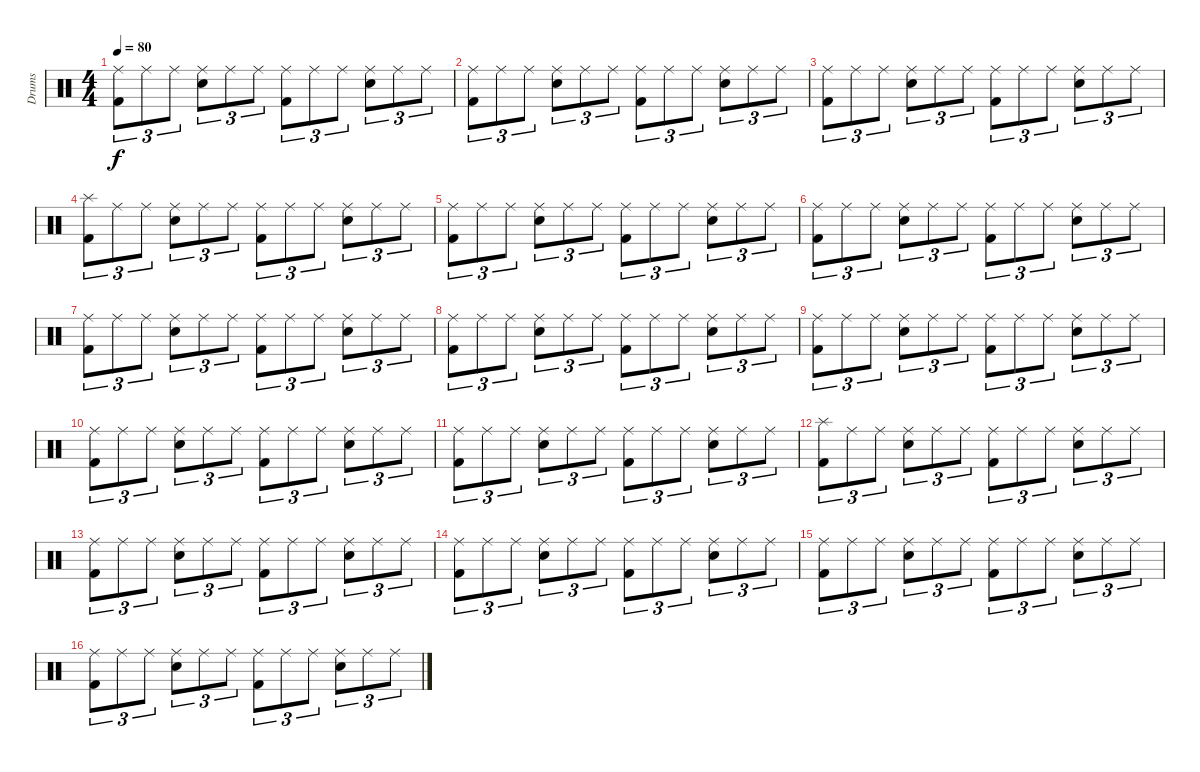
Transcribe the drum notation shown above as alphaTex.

\track ("Drums" "Drums") {instrument percussion}
\staff {score}
\articulation defaults
\ts (4 4)
\tempo 80
\clef neutral
\ks c
("Ride (middle)" "Kick (hit) 2").8{tu (3 2) dy f} "Ride (middle)".8{tu (3 2)} "Ride (middle)".8{tu (3 2)} ("Ride (middle)" "Electric Snare (hit)").8{tu (3 2)} "Ride (middle)".8{tu (3 2)} "Ride (middle)".8{tu (3 2)} ("Ride (middle)" "Kick (hit) 2").8{tu (3 2)} "Ride (middle)".8{tu (3 2)} "Ride (middle)".8{tu (3 2)} ("Ride (middle)" "Electric Snare (hit)").8{tu (3 2)} "Ride (middle)".8{tu (3 2)} "Ride (middle)".8{tu (3 2)} |
("Ride (middle)" "Kick (hit) 2").8{tu (3 2)} "Ride (middle)".8{tu (3 2)} "Ride (middle)".8{tu (3 2)} ("Ride (middle)" "Electric Snare (hit)").8{tu (3 2)} "Ride (middle)".8{tu (3 2)} "Ride (middle)".8{tu (3 2)} ("Ride (middle)" "Kick (hit) 2").8{tu (3 2)} "Ride (middle)".8{tu (3 2)} "Ride (middle)".8{tu (3 2)} ("Ride (middle)" "Electric Snare (hit)").8{tu (3 2)} "Ride (middle)".8{tu (3 2)} "Ride (middle)".8{tu (3 2)} |
("Ride (middle)" "Kick (hit) 2").8{tu (3 2)} "Ride (middle)".8{tu (3 2)} "Ride (middle)".8{tu (3 2)} ("Ride (middle)" "Electric Snare (hit)").8{tu (3 2)} "Ride (middle)".8{tu (3 2)} "Ride (middle)".8{tu (3 2)} ("Ride (middle)" "Kick (hit) 2").8{tu (3 2)} "Ride (middle)".8{tu (3 2)} "Ride (middle)".8{tu (3 2)} ("Ride (middle)" "Electric Snare (hit)").8{tu (3 2)} "Ride (middle)".8{tu (3 2)} "Ride (middle)".8{tu (3 2)} |
("Splash (hit)" "Kick (hit) 2").8{tu (3 2)} "Ride (middle)".8{tu (3 2)} "Ride (middle)".8{tu (3 2)} ("Ride (middle)" "Electric Snare (hit)").8{tu (3 2)} "Ride (middle)".8{tu (3 2)} "Ride (middle)".8{tu (3 2)} ("Ride (middle)" "Kick (hit) 2").8{tu (3 2)} "Ride (middle)".8{tu (3 2)} "Ride (middle)".8{tu (3 2)} ("Ride (middle)" "Electric Snare (hit)").8{tu (3 2)} "Ride (middle)".8{tu (3 2)} "Ride (middle)".8{tu (3 2)} |
("Ride (middle)" "Kick (hit) 2").8{tu (3 2)} "Ride (middle)".8{tu (3 2)} "Ride (middle)".8{tu (3 2)} ("Ride (middle)" "Electric Snare (hit)").8{tu (3 2)} "Ride (middle)".8{tu (3 2)} "Ride (middle)".8{tu (3 2)} ("Ride (middle)" "Kick (hit) 2").8{tu (3 2)} "Ride (middle)".8{tu (3 2)} "Ride (middle)".8{tu (3 2)} ("Ride (middle)" "Electric Snare (hit)").8{tu (3 2)} "Ride (middle)".8{tu (3 2)} "Ride (middle)".8{tu (3 2)} |
("Ride (middle)" "Kick (hit) 2").8{tu (3 2)} "Ride (middle)".8{tu (3 2)} "Ride (middle)".8{tu (3 2)} ("Ride (middle)" "Electric Snare (hit)").8{tu (3 2)} "Ride (middle)".8{tu (3 2)} "Ride (middle)".8{tu (3 2)} ("Ride (middle)" "Kick (hit) 2").8{tu (3 2)} "Ride (middle)".8{tu (3 2)} "Ride (middle)".8{tu (3 2)} ("Ride (middle)" "Electric Snare (hit)").8{tu (3 2)} "Ride (middle)".8{tu (3 2)} "Ride (middle)".8{tu (3 2)} |
("Ride (middle)" "Kick (hit) 2").8{tu (3 2)} "Ride (middle)".8{tu (3 2)} "Ride (middle)".8{tu (3 2)} ("Ride (middle)" "Electric Snare (hit)").8{tu (3 2)} "Ride (middle)".8{tu (3 2)} "Ride (middle)".8{tu (3 2)} ("Ride (middle)" "Kick (hit) 2").8{tu (3 2)} "Ride (middle)".8{tu (3 2)} "Ride (middle)".8{tu (3 2)} ("Ride (middle)" "Electric Snare (hit)").8{tu (3 2)} "Ride (middle)".8{tu (3 2)} "Ride (middle)".8{tu (3 2)} |
("Ride (middle)" "Kick (hit) 2").8{tu (3 2)} "Ride (middle)".8{tu (3 2)} "Ride (middle)".8{tu (3 2)} ("Ride (middle)" "Electric Snare (hit)").8{tu (3 2)} "Ride (middle)".8{tu (3 2)} "Ride (middle)".8{tu (3 2)} ("Ride (middle)" "Kick (hit) 2").8{tu (3 2)} "Ride (middle)".8{tu (3 2)} "Ride (middle)".8{tu (3 2)} ("Ride (middle)" "Electric Snare (hit)").8{tu (3 2)} "Ride (middle)".8{tu (3 2)} "Ride (middle)".8{tu (3 2)} |
("Ride (middle)" "Kick (hit) 2").8{tu (3 2)} "Ride (middle)".8{tu (3 2)} "Ride (middle)".8{tu (3 2)} ("Ride (middle)" "Electric Snare (hit)").8{tu (3 2)} "Ride (middle)".8{tu (3 2)} "Ride (middle)".8{tu (3 2)} ("Ride (middle)" "Kick (hit) 2").8{tu (3 2)} "Ride (middle)".8{tu (3 2)} "Ride (middle)".8{tu (3 2)} ("Ride (middle)" "Electric Snare (hit)").8{tu (3 2)} "Ride (middle)".8{tu (3 2)} "Ride (middle)".8{tu (3 2)} |
("Ride (middle)" "Kick (hit) 2").8{tu (3 2)} "Ride (middle)".8{tu (3 2)} "Ride (middle)".8{tu (3 2)} ("Ride (middle)" "Electric Snare (hit)").8{tu (3 2)} "Ride (middle)".8{tu (3 2)} "Ride (middle)".8{tu (3 2)} ("Ride (middle)" "Kick (hit) 2").8{tu (3 2)} "Ride (middle)".8{tu (3 2)} "Ride (middle)".8{tu (3 2)} ("Ride (middle)" "Electric Snare (hit)").8{tu (3 2)} "Ride (middle)".8{tu (3 2)} "Ride (middle)".8{tu (3 2)} |
("Ride (middle)" "Kick (hit) 2").8{tu (3 2)} "Ride (middle)".8{tu (3 2)} "Ride (middle)".8{tu (3 2)} ("Ride (middle)" "Electric Snare (hit)").8{tu (3 2)} "Ride (middle)".8{tu (3 2)} "Ride (middle)".8{tu (3 2)} ("Ride (middle)" "Kick (hit) 2").8{tu (3 2)} "Ride (middle)".8{tu (3 2)} "Ride (middle)".8{tu (3 2)} ("Ride (middle)" "Electric Snare (hit)").8{tu (3 2)} "Ride (middle)".8{tu (3 2)} "Ride (middle)".8{tu (3 2)} |
("Splash (hit)" "Kick (hit) 2").8{tu (3 2)} "Ride (middle)".8{tu (3 2)} "Ride (middle)".8{tu (3 2)} ("Ride (middle)" "Electric Snare (hit)").8{tu (3 2)} "Ride (middle)".8{tu (3 2)} "Ride (middle)".8{tu (3 2)} ("Ride (middle)" "Kick (hit) 2").8{tu (3 2)} "Ride (middle)".8{tu (3 2)} "Ride (middle)".8{tu (3 2)} ("Ride (middle)" "Electric Snare (hit)").8{tu (3 2)} "Ride (middle)".8{tu (3 2)} "Ride (middle)".8{tu (3 2)} |
("Ride (middle)" "Kick (hit) 2").8{tu (3 2)} "Ride (middle)".8{tu (3 2)} "Ride (middle)".8{tu (3 2)} ("Ride (middle)" "Electric Snare (hit)").8{tu (3 2)} "Ride (middle)".8{tu (3 2)} "Ride (middle)".8{tu (3 2)} ("Ride (middle)" "Kick (hit) 2").8{tu (3 2)} "Ride (middle)".8{tu (3 2)} "Ride (middle)".8{tu (3 2)} ("Ride (middle)" "Electric Snare (hit)").8{tu (3 2)} "Ride (middle)".8{tu (3 2)} "Ride (middle)".8{tu (3 2)} |
("Ride (middle)" "Kick (hit) 2").8{tu (3 2)} "Ride (middle)".8{tu (3 2)} "Ride (middle)".8{tu (3 2)} ("Ride (middle)" "Electric Snare (hit)").8{tu (3 2)} "Ride (middle)".8{tu (3 2)} "Ride (middle)".8{tu (3 2)} ("Ride (middle)" "Kick (hit) 2").8{tu (3 2)} "Ride (middle)".8{tu (3 2)} "Ride (middle)".8{tu (3 2)} ("Ride (middle)" "Electric Snare (hit)").8{tu (3 2)} "Ride (middle)".8{tu (3 2)} "Ride (middle)".8{tu (3 2)} |
("Ride (middle)" "Kick (hit) 2").8{tu (3 2)} "Ride (middle)".8{tu (3 2)} "Ride (middle)".8{tu (3 2)} ("Ride (middle)" "Electric Snare (hit)").8{tu (3 2)} "Ride (middle)".8{tu (3 2)} "Ride (middle)".8{tu (3 2)} ("Ride (middle)" "Kick (hit) 2").8{tu (3 2)} "Ride (middle)".8{tu (3 2)} "Ride (middle)".8{tu (3 2)} ("Ride (middle)" "Electric Snare (hit)").8{tu (3 2)} "Ride (middle)".8{tu (3 2)} "Ride (middle)".8{tu (3 2)} |
("Ride (middle)" "Kick (hit) 2").8{tu (3 2)} "Ride (middle)".8{tu (3 2)} "Ride (middle)".8{tu (3 2)} ("Ride (middle)" "Electric Snare (hit)").8{tu (3 2)} "Ride (middle)".8{tu (3 2)} "Ride (middle)".8{tu (3 2)} ("Ride (middle)" "Kick (hit) 2").8{tu (3 2)} "Ride (middle)".8{tu (3 2)} "Ride (middle)".8{tu (3 2)} ("Ride (middle)" "Electric Snare (hit)").8{tu (3 2)} "Ride (middle)".8{tu (3 2)} "Ride (middle)".8{tu (3 2)}
